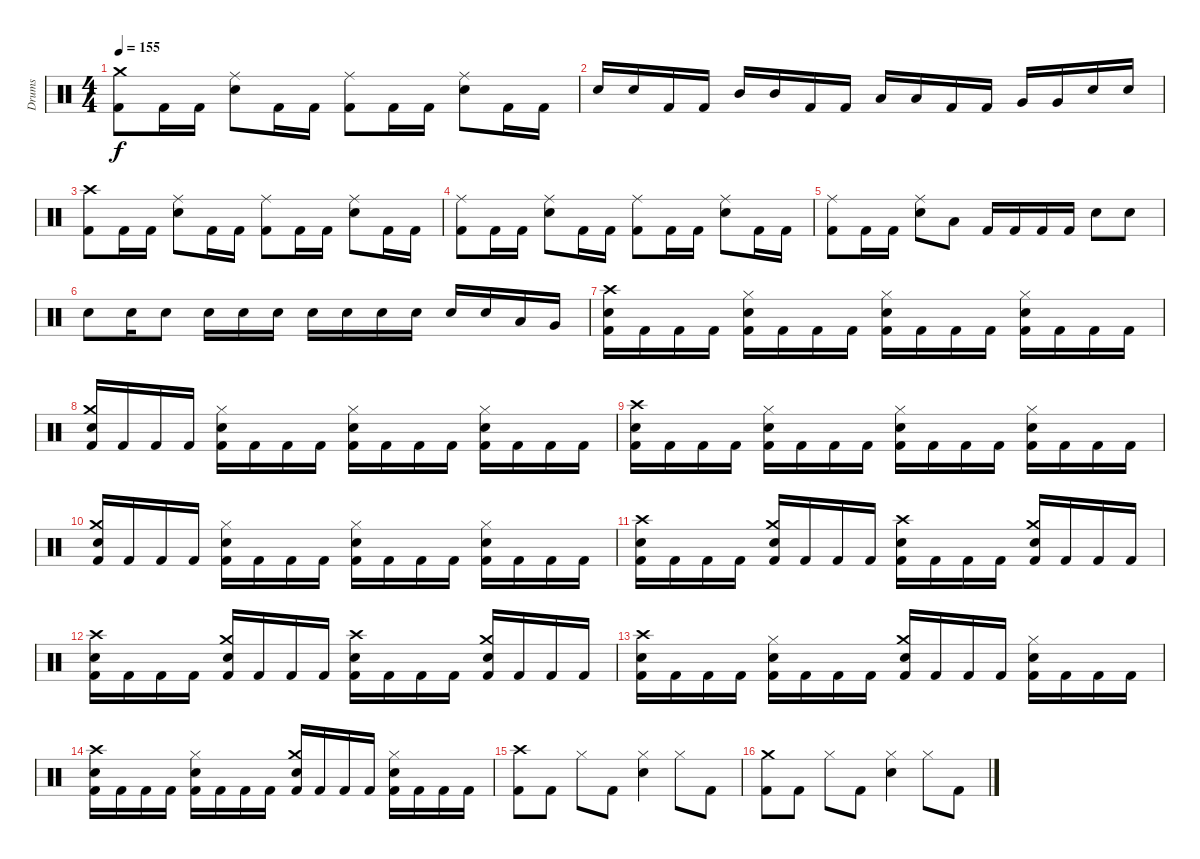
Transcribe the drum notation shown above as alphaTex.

\track ("Drums" "Drums") {instrument percussion}
\staff {score}
\articulation defaults
\ts (4 4)
\tempo 155
\clef neutral
\ks c
("Kick (hit) 2" "Crash medium (hit)").8{dy f} "Kick (hit) 2".16 "Kick (hit) 2".16 ("Ride (middle)" "Electric Snare (hit)").8 "Kick (hit) 2".16 "Kick (hit) 2".16 ("Kick (hit) 2" "Ride (middle)").8 "Kick (hit) 2".16 "Kick (hit) 2".16 ("Ride (middle)" "Electric Snare (hit)").8 "Kick (hit) 2".16 "Kick (hit) 2".16 |
"Electric Snare (hit)".16 "Electric Snare (hit)".16 "Kick (hit) 2".16 "Kick (hit) 2".16 "Mid Tom (hit)".16 "Mid Tom (hit)".16 "Kick (hit) 2".16 "Kick (hit) 2".16 "Low Tom (hit)".16 "Low Tom (hit)".16 "Kick (hit) 2".16 "Kick (hit) 2".16 "Very Low Tom (hit)".16 "Very Low Tom (hit)".16 "Electric Snare (hit)".16 "Electric Snare (hit)".16 |
("Kick (hit) 2" "Crash high (hit)").8 "Kick (hit) 2".16 "Kick (hit) 2".16 ("Ride (middle)" "Electric Snare (hit)").8 "Kick (hit) 2".16 "Kick (hit) 2".16 ("Kick (hit) 2" "Ride (middle)").8 "Kick (hit) 2".16 "Kick (hit) 2".16 ("Ride (middle)" "Electric Snare (hit)").8 "Kick (hit) 2".16 "Kick (hit) 2".16 |
("Kick (hit) 2" "Ride (middle)").8 "Kick (hit) 2".16 "Kick (hit) 2".16 ("Ride (middle)" "Electric Snare (hit)").8 "Kick (hit) 2".16 "Kick (hit) 2".16 ("Kick (hit) 2" "Ride (middle)").8 "Kick (hit) 2".16 "Kick (hit) 2".16 ("Ride (middle)" "Electric Snare (hit)").8 "Kick (hit) 2".16 "Kick (hit) 2".16 |
("Kick (hit) 2" "Ride (middle)").8 "Kick (hit) 2".16 "Kick (hit) 2".16 ("Ride (middle)" "Electric Snare (hit)").8 "Low Tom (hit)".8 "Kick (hit) 2".16 "Kick (hit) 2".16 "Kick (hit) 2".16 "Kick (hit) 2".16 "Electric Snare (hit)".8 "Electric Snare (hit)".8 |
"Electric Snare (hit)".8 "Electric Snare (hit)".16 "Electric Snare (hit)".8 "Electric Snare (hit)".16 "Electric Snare (hit)".16 "Electric Snare (hit)".16 "Electric Snare (hit)".16 "Electric Snare (hit)".16 "Electric Snare (hit)".16 "Electric Snare (hit)".16 "Electric Snare (hit)".16 "Electric Snare (hit)".16 "Low Tom (hit)".16 "Very Low Tom (hit)".16 |
("Kick (hit) 2" "Crash high (hit)" "Electric Snare (hit)").16 "Kick (hit) 2".16 "Kick (hit) 2".16 "Kick (hit) 2".16 ("Kick (hit) 2" "Hi-Hat (closed)" "Electric Snare (hit)").16 "Kick (hit) 2".16 "Kick (hit) 2".16 "Kick (hit) 2".16 ("Kick (hit) 2" "Hi-Hat (closed)" "Electric Snare (hit)").16 "Kick (hit) 2".16 "Kick (hit) 2".16 "Kick (hit) 2".16 ("Kick (hit) 2" "Hi-Hat (closed)" "Electric Snare (hit)").16 "Kick (hit) 2".16 "Kick (hit) 2".16 "Kick (hit) 2".16 |
("Kick (hit) 2" "Crash medium (hit)" "Electric Snare (hit)").16 "Kick (hit) 2".16 "Kick (hit) 2".16 "Kick (hit) 2".16 ("Kick (hit) 2" "Hi-Hat (closed)" "Electric Snare (hit)").16 "Kick (hit) 2".16 "Kick (hit) 2".16 "Kick (hit) 2".16 ("Kick (hit) 2" "Hi-Hat (closed)" "Electric Snare (hit)").16 "Kick (hit) 2".16 "Kick (hit) 2".16 "Kick (hit) 2".16 ("Kick (hit) 2" "Hi-Hat (closed)" "Electric Snare (hit)").16 "Kick (hit) 2".16 "Kick (hit) 2".16 "Kick (hit) 2".16 |
("Kick (hit) 2" "Crash high (hit)" "Electric Snare (hit)").16 "Kick (hit) 2".16 "Kick (hit) 2".16 "Kick (hit) 2".16 ("Kick (hit) 2" "Hi-Hat (closed)" "Electric Snare (hit)").16 "Kick (hit) 2".16 "Kick (hit) 2".16 "Kick (hit) 2".16 ("Kick (hit) 2" "Hi-Hat (closed)" "Electric Snare (hit)").16 "Kick (hit) 2".16 "Kick (hit) 2".16 "Kick (hit) 2".16 ("Kick (hit) 2" "Hi-Hat (closed)" "Electric Snare (hit)").16 "Kick (hit) 2".16 "Kick (hit) 2".16 "Kick (hit) 2".16 |
("Kick (hit) 2" "Crash medium (hit)" "Electric Snare (hit)").16 "Kick (hit) 2".16 "Kick (hit) 2".16 "Kick (hit) 2".16 ("Kick (hit) 2" "Hi-Hat (closed)" "Electric Snare (hit)").16 "Kick (hit) 2".16 "Kick (hit) 2".16 "Kick (hit) 2".16 ("Kick (hit) 2" "Hi-Hat (closed)" "Electric Snare (hit)").16 "Kick (hit) 2".16 "Kick (hit) 2".16 "Kick (hit) 2".16 ("Kick (hit) 2" "Hi-Hat (closed)" "Electric Snare (hit)").16 "Kick (hit) 2".16 "Kick (hit) 2".16 "Kick (hit) 2".16 |
("Kick (hit) 2" "Crash high (hit)" "Electric Snare (hit)").16 "Kick (hit) 2".16 "Kick (hit) 2".16 "Kick (hit) 2".16 ("Kick (hit) 2" "Crash medium (hit)" "Electric Snare (hit)").16 "Kick (hit) 2".16 "Kick (hit) 2".16 "Kick (hit) 2".16 ("Kick (hit) 2" "Crash high (hit)" "Electric Snare (hit)").16 "Kick (hit) 2".16 "Kick (hit) 2".16 "Kick (hit) 2".16 ("Kick (hit) 2" "Crash medium (hit)" "Electric Snare (hit)").16 "Kick (hit) 2".16 "Kick (hit) 2".16 "Kick (hit) 2".16 |
("Kick (hit) 2" "Crash high (hit)" "Electric Snare (hit)").16 "Kick (hit) 2".16 "Kick (hit) 2".16 "Kick (hit) 2".16 ("Kick (hit) 2" "Crash medium (hit)" "Electric Snare (hit)").16 "Kick (hit) 2".16 "Kick (hit) 2".16 "Kick (hit) 2".16 ("Kick (hit) 2" "Crash high (hit)" "Electric Snare (hit)").16 "Kick (hit) 2".16 "Kick (hit) 2".16 "Kick (hit) 2".16 ("Kick (hit) 2" "Crash medium (hit)" "Electric Snare (hit)").16 "Kick (hit) 2".16 "Kick (hit) 2".16 "Kick (hit) 2".16 |
("Kick (hit) 2" "Crash high (hit)" "Electric Snare (hit)").16 "Kick (hit) 2".16 "Kick (hit) 2".16 "Kick (hit) 2".16 ("Kick (hit) 2" "Hi-Hat (closed)" "Electric Snare (hit)").16 "Kick (hit) 2".16 "Kick (hit) 2".16 "Kick (hit) 2".16 ("Kick (hit) 2" "Crash medium (hit)" "Electric Snare (hit)").16 "Kick (hit) 2".16 "Kick (hit) 2".16 "Kick (hit) 2".16 ("Kick (hit) 2" "Hi-Hat (closed)" "Electric Snare (hit)").16 "Kick (hit) 2".16 "Kick (hit) 2".16 "Kick (hit) 2".16 |
("Kick (hit) 2" "Crash high (hit)" "Electric Snare (hit)").16 "Kick (hit) 2".16 "Kick (hit) 2".16 "Kick (hit) 2".16 ("Kick (hit) 2" "Hi-Hat (closed)" "Electric Snare (hit)").16 "Kick (hit) 2".16 "Kick (hit) 2".16 "Kick (hit) 2".16 ("Kick (hit) 2" "Crash medium (hit)" "Electric Snare (hit)").16 "Kick (hit) 2".16 "Kick (hit) 2".16 "Kick (hit) 2".16 ("Kick (hit) 2" "Hi-Hat (closed)" "Electric Snare (hit)").16 "Kick (hit) 2".16 "Kick (hit) 2".16 "Kick (hit) 2".16 |
("Kick (hit) 2" "Crash high (hit)").8 "Kick (hit) 2".8 "Hi-Hat (closed)".8 "Kick (hit) 2".8 ("Hi-Hat (closed)" "Electric Snare (hit)").4 "Hi-Hat (closed)".8 "Kick (hit) 2".8 |
("Kick (hit) 2" "Crash medium (hit)").8 "Kick (hit) 2".8 "Hi-Hat (closed)".8 "Kick (hit) 2".8 ("Hi-Hat (closed)" "Electric Snare (hit)").4 "Hi-Hat (closed)".8 "Kick (hit) 2".8
